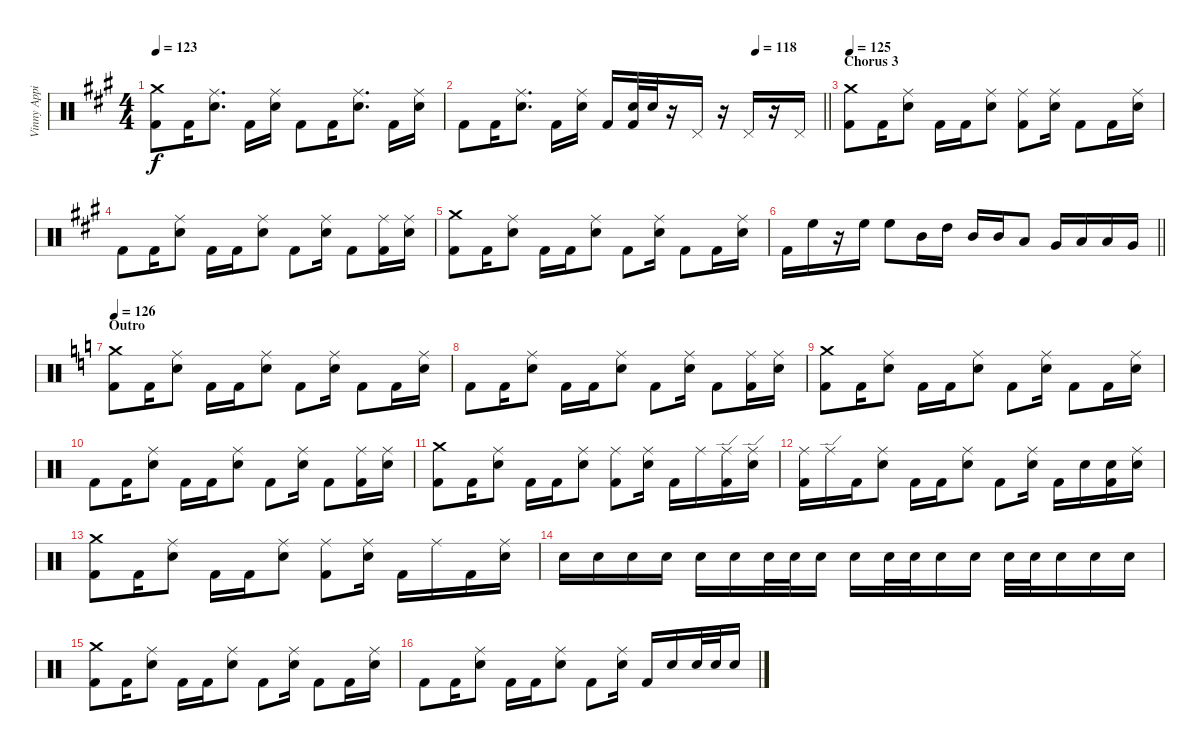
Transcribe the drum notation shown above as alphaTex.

\track ("Vinny Appice" "Vinny Appi") {instrument percussion}
\staff {score}
\articulation defaults
\ts (4 4)
\tempo 123
\clef neutral
\ks f#minor
("Crash medium (hit)" "Kick (hit) 2").8{dy f} "Kick (hit) 2".16 ("Snare (hit) 2" "Ride (middle)").8{d} "Kick (hit) 2".16 ("Ride (middle)" "Snare (hit) 2").16 "Kick (hit) 2".8 "Kick (hit) 2".16 ("Snare (hit) 2" "Ride (middle)").8{d} "Kick (hit) 2".16 ("Snare (hit) 2" "Ride (middle)").16 |
\tempo (118 0.8125)
\barLineRight lightlight "Kick (hit) 2".8 "Kick (hit) 2".16
("Snare (hit) 2" "Ride (middle)").8{d} "Kick (hit) 2".16 ("Snare (hit) 2" "Ride (middle)").16 "Kick (hit) 2".16 ("Kick (hit) 2" "Snare (hit) 2").32 "Snare (hit) 2".32 r.16 "Pedal Hi-Hat (hit)".16 r.16 "Pedal Hi-Hat (hit)".16 r.16 "Pedal Hi-Hat (hit)".16 |
\section ("" "Chorus 3")
\tempo 125
("Crash medium (hit)" "Kick (hit) 2").8 "Kick (hit) 2".16 ("Snare (hit) 2" "Ride (middle)").8 "Kick (hit) 2".16 "Kick (hit) 2".16 ("Snare (hit) 2" "Ride (middle)").8 ("Kick (hit) 2" "Ride (middle)").8 ("Snare (hit) 2" "Ride (middle)").16 "Kick (hit) 2".8 "Kick (hit) 2".16 ("Snare (hit) 2" "Ride (middle)").16 |
"Kick (hit) 2".8 "Kick (hit) 2".16 ("Snare (hit) 2" "Ride (middle)").8 "Kick (hit) 2".16 "Kick (hit) 2".16 ("Snare (hit) 2" "Ride (middle)").8 "Kick (hit) 2".8 ("Snare (hit) 2" "Ride (middle)").16 "Kick (hit) 2".8 ("Kick (hit) 2" "Ride (middle)").16 ("Snare (hit) 2" "Ride (middle)").16 |
("Crash medium (hit)" "Kick (hit) 2").8 "Kick (hit) 2".16 ("Snare (hit) 2" "Ride (middle)").8 "Kick (hit) 2".16 "Kick (hit) 2".16 ("Snare (hit) 2" "Ride (middle)").8 "Kick (hit) 2".8 ("Snare (hit) 2" "Ride (middle)").16 "Kick (hit) 2".8 "Kick (hit) 2".16 ("Snare (hit) 2" "Ride (middle)").16 |
\barLineRight lightlight "Kick (hit) 2".16 "High Floor Tom (hit)".16
r.16 "High Floor Tom (hit)".16 "High Floor Tom (hit)".8 "Mid Tom (hit)".16 "High Tom (hit)".16 "Mid Tom (hit)".16 "Mid Tom (hit)".16 "Low Tom (hit)".8 "Very Low Tom (hit)".16 "Low Tom (hit)".16 "Low Tom (hit)".16 "Very Low Tom (hit)".16 |
\section ("" "Outro")
\tempo 126
\ks aminor
("Crash medium (hit)" "Kick (hit) 2").8 "Kick (hit) 2".16 ("Snare (hit) 2" "Ride (middle)").8 "Kick (hit) 2".16 "Kick (hit) 2".16 ("Snare (hit) 2" "Ride (middle)").8 "Kick (hit) 2".8 ("Snare (hit) 2" "Ride (middle)").16 "Kick (hit) 2".8 "Kick (hit) 2".16 ("Snare (hit) 2" "Ride (middle)").16 |
"Kick (hit) 2".8 "Kick (hit) 2".16 ("Snare (hit) 2" "Ride (middle)").8 "Kick (hit) 2".16 "Kick (hit) 2".16 ("Snare (hit) 2" "Ride (middle)").8 "Kick (hit) 2".8 ("Snare (hit) 2" "Ride (middle)").16 "Kick (hit) 2".8 ("Kick (hit) 2" "Ride (middle)").16 ("Snare (hit) 2" "Ride (middle)").16 |
("Crash medium (hit)" "Kick (hit) 2").8 "Kick (hit) 2".16 ("Snare (hit) 2" "Ride (middle)").8 "Kick (hit) 2".16 "Kick (hit) 2".16 ("Snare (hit) 2" "Ride (middle)").8 "Kick (hit) 2".8 ("Snare (hit) 2" "Ride (middle)").16 "Kick (hit) 2".8 "Kick (hit) 2".16 ("Snare (hit) 2" "Ride (middle)").16 |
"Kick (hit) 2".8 "Kick (hit) 2".16 ("Snare (hit) 2" "Ride (middle)").8 "Kick (hit) 2".16 "Kick (hit) 2".16 ("Snare (hit) 2" "Ride (middle)").8 "Kick (hit) 2".8 ("Snare (hit) 2" "Ride (middle)").16 "Kick (hit) 2".8 ("Kick (hit) 2" "Ride (middle)").16 ("Snare (hit) 2" "Ride (middle)").16 |
("Crash medium (hit)" "Kick (hit) 2").8 "Kick (hit) 2".16 ("Snare (hit) 2" "Ride (middle)").8 "Kick (hit) 2".16 "Kick (hit) 2".16 ("Snare (hit) 2" "Ride (middle)").8 ("Kick (hit) 2" "Ride (middle)").8 ("Snare (hit) 2" "Ride (middle)").16 "Kick (hit) 2".16 "Ride (middle)".16 ("Kick (hit) 2" "Ride (edge)").16 ("Snare (hit) 2" "Ride (edge)").16 |
("Kick (hit) 2" "Ride (middle)").16 "Ride (edge)".16 "Kick (hit) 2".16 ("Snare (hit) 2" "Ride (middle)").8 "Kick (hit) 2".16 "Kick (hit) 2".16 ("Snare (hit) 2" "Ride (middle)").8 "Kick (hit) 2".8 ("Snare (hit) 2" "Ride (middle)").16 "Kick (hit) 2".16 "Snare (hit) 2".16 ("Kick (hit) 2" "Snare (hit) 2").16 ("Ride (middle)" "Snare (hit) 2").16 |
("Crash medium (hit)" "Kick (hit) 2").8 "Kick (hit) 2".16 ("Snare (hit) 2" "Ride (middle)").8 "Kick (hit) 2".16 "Kick (hit) 2".16 ("Snare (hit) 2" "Ride (middle)").8 ("Kick (hit) 2" "Ride (middle)").8 ("Snare (hit) 2" "Ride (middle)").16 "Kick (hit) 2".16 "Ride (middle)".16 "Kick (hit) 2".16 ("Snare (hit) 2" "Ride (middle)").16 |
"Snare (hit) 2".16 "Snare (hit) 2".16 "Snare (hit) 2".16 "Snare (hit) 2".16 "Snare (hit) 2".16 "Snare (hit) 2".16 "Snare (hit) 2".32 "Snare (hit) 2".32 "Snare (hit) 2".16 "Snare (hit) 2".16 "Snare (hit) 2".32 "Snare (hit) 2".32 "Snare (hit) 2".16 "Snare (hit) 2".16 "Snare (hit) 2".32 "Snare (hit) 2".32 "Snare (hit) 2".16 "Snare (hit) 2".16 "Snare (hit) 2".16 |
("Crash medium (hit)" "Kick (hit) 2").8 "Kick (hit) 2".16 ("Snare (hit) 2" "Ride (middle)").8 "Kick (hit) 2".16 "Kick (hit) 2".16 ("Snare (hit) 2" "Ride (middle)").8 "Kick (hit) 2".8 ("Snare (hit) 2" "Ride (middle)").16 "Kick (hit) 2".8 "Kick (hit) 2".16 ("Snare (hit) 2" "Ride (middle)").16 |
"Kick (hit) 2".8 "Kick (hit) 2".16 ("Snare (hit) 2" "Ride (middle)").8 "Kick (hit) 2".16 "Kick (hit) 2".16 ("Snare (hit) 2" "Ride (middle)").8 "Kick (hit) 2".8 ("Snare (hit) 2" "Ride (middle)").16 "Kick (hit) 2".16 "Snare (hit) 2".16 "Snare (hit) 2".32 "Snare (hit) 2".32 "Snare (hit) 2".16
